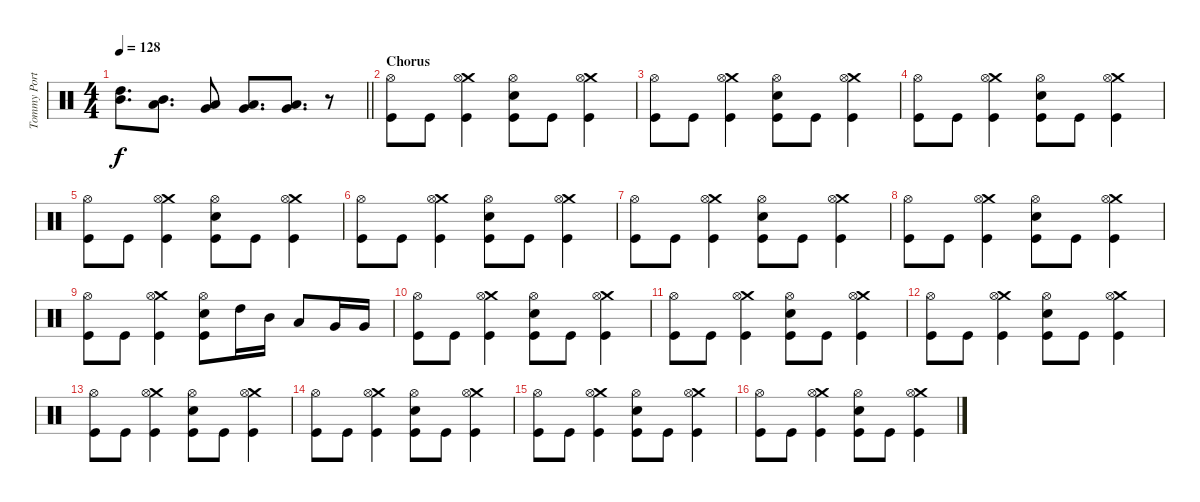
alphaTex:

\track ("Tommy Portimo - Drums" "Tommy Port") {instrument percussion}
\staff {score}
\articulation defaults
\ts (4 4)
\tempo 128
\clef neutral
\barLineRight lightlight
\ks c
("High Tom (hit)" "Mid Tom (hit)").8{d dy f} ("Mid Tom (hit)" "Low Tom (hit)").8{d} ("Low Tom (hit)" "Very Low Tom (hit)").8 ("Very Low Tom (hit)" "Low Floor Tom (hit)").8{d} ("Very Low Tom (hit)" "Low Floor Tom (hit)").8{d} r.8 |
\section ("" "Chorus")
("Hi-Hat (open)" "Kick (hit)").8 "Kick (hit)".8 ("Crash medium (hit)" "Hi-Hat (open)" "Kick (hit)").4 ("Hi-Hat (open)" "Electric Snare (hit)" "Kick (hit)").8 "Kick (hit)".8 ("Crash medium (hit)" "Hi-Hat (open)" "Kick (hit)").4 |
("Hi-Hat (open)" "Kick (hit)").8 "Kick (hit)".8 ("Crash medium (hit)" "Hi-Hat (open)" "Kick (hit)").4 ("Hi-Hat (open)" "Electric Snare (hit)" "Kick (hit)").8 "Kick (hit)".8 ("Crash medium (hit)" "Hi-Hat (open)" "Kick (hit)").4 |
("Hi-Hat (open)" "Kick (hit)").8 "Kick (hit)".8 ("Crash medium (hit)" "Hi-Hat (open)" "Kick (hit)").4 ("Hi-Hat (open)" "Electric Snare (hit)" "Kick (hit)").8 "Kick (hit)".8 ("Crash medium (hit)" "Hi-Hat (open)" "Kick (hit)").4 |
("Hi-Hat (open)" "Kick (hit)").8 "Kick (hit)".8 ("Crash medium (hit)" "Hi-Hat (open)" "Kick (hit)").4 ("Hi-Hat (open)" "Electric Snare (hit)" "Kick (hit)").8 "Kick (hit)".8 ("Crash medium (hit)" "Hi-Hat (open)" "Kick (hit)").4 |
("Hi-Hat (open)" "Kick (hit)").8 "Kick (hit)".8 ("Crash medium (hit)" "Hi-Hat (open)" "Kick (hit)").4 ("Hi-Hat (open)" "Electric Snare (hit)" "Kick (hit)").8 "Kick (hit)".8 ("Crash medium (hit)" "Hi-Hat (open)" "Kick (hit)").4 |
("Hi-Hat (open)" "Kick (hit)").8 "Kick (hit)".8 ("Crash medium (hit)" "Hi-Hat (open)" "Kick (hit)").4 ("Hi-Hat (open)" "Electric Snare (hit)" "Kick (hit)").8 "Kick (hit)".8 ("Crash medium (hit)" "Hi-Hat (open)" "Kick (hit)").4 |
("Hi-Hat (open)" "Kick (hit)").8 "Kick (hit)".8 ("Crash medium (hit)" "Hi-Hat (open)" "Kick (hit)").4 ("Hi-Hat (open)" "Electric Snare (hit)" "Kick (hit)").8 "Kick (hit)".8 ("Crash medium (hit)" "Hi-Hat (open)" "Kick (hit)").4 |
("Hi-Hat (open)" "Kick (hit)").8 "Kick (hit)".8 ("Crash medium (hit)" "Hi-Hat (open)" "Kick (hit)").4 ("Hi-Hat (open)" "Electric Snare (hit)" "Kick (hit)").8 "High Tom (hit)".16 "Mid Tom (hit)".16 "Low Tom (hit)".8 "Very Low Tom (hit)".16 "Very Low Tom (hit)".16 |
("Hi-Hat (open)" "Kick (hit)").8 "Kick (hit)".8 ("Crash medium (hit)" "Hi-Hat (open)" "Kick (hit)").4 ("Hi-Hat (open)" "Electric Snare (hit)" "Kick (hit)").8 "Kick (hit)".8 ("Crash medium (hit)" "Hi-Hat (open)" "Kick (hit)").4 |
("Hi-Hat (open)" "Kick (hit)").8 "Kick (hit)".8 ("Crash medium (hit)" "Hi-Hat (open)" "Kick (hit)").4 ("Hi-Hat (open)" "Electric Snare (hit)" "Kick (hit)").8 "Kick (hit)".8 ("Crash medium (hit)" "Hi-Hat (open)" "Kick (hit)").4 |
("Hi-Hat (open)" "Kick (hit)").8 "Kick (hit)".8 ("Crash medium (hit)" "Hi-Hat (open)" "Kick (hit)").4 ("Hi-Hat (open)" "Electric Snare (hit)" "Kick (hit)").8 "Kick (hit)".8 ("Crash medium (hit)" "Hi-Hat (open)" "Kick (hit)").4 |
("Hi-Hat (open)" "Kick (hit)").8 "Kick (hit)".8 ("Crash medium (hit)" "Hi-Hat (open)" "Kick (hit)").4 ("Hi-Hat (open)" "Electric Snare (hit)" "Kick (hit)").8 "Kick (hit)".8 ("Crash medium (hit)" "Hi-Hat (open)" "Kick (hit)").4 |
("Hi-Hat (open)" "Kick (hit)").8 "Kick (hit)".8 ("Crash medium (hit)" "Hi-Hat (open)" "Kick (hit)").4 ("Hi-Hat (open)" "Electric Snare (hit)" "Kick (hit)").8 "Kick (hit)".8 ("Crash medium (hit)" "Hi-Hat (open)" "Kick (hit)").4 |
("Hi-Hat (open)" "Kick (hit)").8 "Kick (hit)".8 ("Crash medium (hit)" "Hi-Hat (open)" "Kick (hit)").4 ("Hi-Hat (open)" "Electric Snare (hit)" "Kick (hit)").8 "Kick (hit)".8 ("Crash medium (hit)" "Hi-Hat (open)" "Kick (hit)").4 |
("Hi-Hat (open)" "Kick (hit)").8 "Kick (hit)".8 ("Crash medium (hit)" "Hi-Hat (open)" "Kick (hit)").4 ("Hi-Hat (open)" "Electric Snare (hit)" "Kick (hit)").8 "Kick (hit)".8 ("Crash medium (hit)" "Hi-Hat (open)" "Kick (hit)").4
